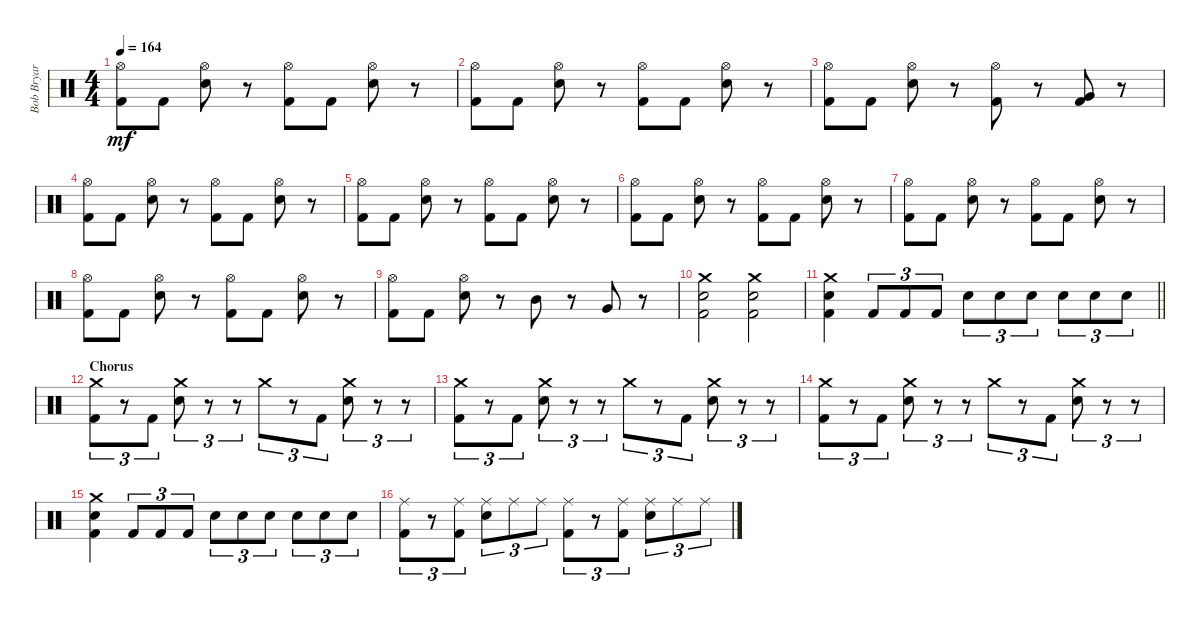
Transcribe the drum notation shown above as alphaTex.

\track ("Bob Bryar" "Bob Bryar") {instrument percussion}
\staff {score}
\articulation defaults
\ts (4 4)
\tempo 164
\clef neutral
\ks c
("Hi-Hat (open)" "Kick (hit) 2").8{dy mf} "Kick (hit) 2".8 ("Hi-Hat (open)" "Electric Snare (hit)").8 r.8 ("Hi-Hat (open)" "Kick (hit) 2").8 "Kick (hit) 2".8 ("Hi-Hat (open)" "Electric Snare (hit)").8 r.8 |
("Hi-Hat (open)" "Kick (hit) 2").8 "Kick (hit) 2".8 ("Hi-Hat (open)" "Electric Snare (hit)").8 r.8 ("Hi-Hat (open)" "Kick (hit) 2").8 "Kick (hit) 2".8 ("Hi-Hat (open)" "Electric Snare (hit)").8 r.8 |
("Hi-Hat (open)" "Kick (hit) 2").8 "Kick (hit) 2".8 ("Hi-Hat (open)" "Electric Snare (hit)").8 r.8 ("Hi-Hat (open)" "Kick (hit) 2").8 r.8 ("Kick (hit) 2" "Very Low Tom (hit)").8 r.8 |
("Hi-Hat (open)" "Kick (hit) 2").8 "Kick (hit) 2".8 ("Hi-Hat (open)" "Electric Snare (hit)").8 r.8 ("Hi-Hat (open)" "Kick (hit) 2").8 "Kick (hit) 2".8 ("Hi-Hat (open)" "Electric Snare (hit)").8 r.8 |
("Hi-Hat (open)" "Kick (hit) 2").8 "Kick (hit) 2".8 ("Hi-Hat (open)" "Electric Snare (hit)").8 r.8 ("Hi-Hat (open)" "Kick (hit) 2").8 "Kick (hit) 2".8 ("Hi-Hat (open)" "Electric Snare (hit)").8 r.8 |
("Hi-Hat (open)" "Kick (hit) 2").8 "Kick (hit) 2".8 ("Hi-Hat (open)" "Electric Snare (hit)").8 r.8 ("Hi-Hat (open)" "Kick (hit) 2").8 "Kick (hit) 2".8 ("Hi-Hat (open)" "Electric Snare (hit)").8 r.8 |
("Hi-Hat (open)" "Kick (hit) 2").8 "Kick (hit) 2".8 ("Hi-Hat (open)" "Electric Snare (hit)").8 r.8 ("Hi-Hat (open)" "Kick (hit) 2").8 "Kick (hit) 2".8 ("Hi-Hat (open)" "Electric Snare (hit)").8 r.8 |
("Hi-Hat (open)" "Kick (hit) 2").8 "Kick (hit) 2".8 ("Hi-Hat (open)" "Electric Snare (hit)").8 r.8 ("Hi-Hat (open)" "Kick (hit) 2").8 "Kick (hit) 2".8 ("Hi-Hat (open)" "Electric Snare (hit)").8 r.8 |
("Hi-Hat (open)" "Kick (hit) 2").8 "Kick (hit) 2".8 ("Hi-Hat (open)" "Electric Snare (hit)").8 r.8 "Mid Tom (hit)".8 r.8 "Very Low Tom (hit)".8 r.8 |
("Crash medium (hit)" "Electric Snare (hit)" "Kick (hit) 2").2 ("Crash medium (hit)" "Electric Snare (hit)" "Kick (hit) 2").2 |
\barLineRight lightlight
("Crash medium (hit)" "Electric Snare (hit)" "Kick (hit) 2").4 "Kick (hit) 2".8{tu (3 2)} "Kick (hit) 2".8{tu (3 2)} "Kick (hit) 2".8{tu (3 2)} "Electric Snare (hit)".8{tu (3 2)} "Electric Snare (hit)".8{tu (3 2)} "Electric Snare (hit)".8{tu (3 2)} "Electric Snare (hit)".8{tu (3 2)} "Electric Snare (hit)".8{tu (3 2)} "Electric Snare (hit)".8{tu (3 2)} |
\section ("" "Chorus")
("Crash medium (hit)" "Kick (hit) 2").8{tu (3 2)} r.8{tu (3 2)} "Kick (hit) 2".8{tu (3 2)} ("Crash medium (hit)" "Electric Snare (hit)").8{tu (3 2)} r.8{tu (3 2)} r.8{tu (3 2)} "Crash medium (hit)".8{tu (3 2)} r.8{tu (3 2)} "Kick (hit) 2".8{tu (3 2)} ("Crash medium (hit)" "Electric Snare (hit)").8{tu (3 2)} r.8{tu (3 2)} r.8{tu (3 2)} |
("Crash medium (hit)" "Kick (hit) 2").8{tu (3 2)} r.8{tu (3 2)} "Kick (hit) 2".8{tu (3 2)} ("Crash medium (hit)" "Electric Snare (hit)").8{tu (3 2)} r.8{tu (3 2)} r.8{tu (3 2)} "Crash medium (hit)".8{tu (3 2)} r.8{tu (3 2)} "Kick (hit) 2".8{tu (3 2)} ("Crash medium (hit)" "Electric Snare (hit)").8{tu (3 2)} r.8{tu (3 2)} r.8{tu (3 2)} |
("Crash medium (hit)" "Kick (hit) 2").8{tu (3 2)} r.8{tu (3 2)} "Kick (hit) 2".8{tu (3 2)} ("Crash medium (hit)" "Electric Snare (hit)").8{tu (3 2)} r.8{tu (3 2)} r.8{tu (3 2)} "Crash medium (hit)".8{tu (3 2)} r.8{tu (3 2)} "Kick (hit) 2".8{tu (3 2)} ("Crash medium (hit)" "Electric Snare (hit)").8{tu (3 2)} r.8{tu (3 2)} r.8{tu (3 2)} |
("Crash medium (hit)" "Electric Snare (hit)" "Kick (hit) 2").4 "Kick (hit) 2".8{tu (3 2)} "Kick (hit) 2".8{tu (3 2)} "Kick (hit) 2".8{tu (3 2)} "Electric Snare (hit)".8{tu (3 2)} "Electric Snare (hit)".8{tu (3 2)} "Electric Snare (hit)".8{tu (3 2)} "Electric Snare (hit)".8{tu (3 2)} "Electric Snare (hit)".8{tu (3 2)} "Electric Snare (hit)".8{tu (3 2)} |
("Ride (middle)" "Kick (hit) 2").8{tu (3 2)} r.8{tu (3 2)} ("Ride (middle)" "Kick (hit) 2").8{tu (3 2)} ("Ride (middle)" "Electric Snare (hit)").8{tu (3 2)} "Ride (middle)".8{tu (3 2)} "Ride (middle)".8{tu (3 2)} ("Ride (middle)" "Kick (hit) 2").8{tu (3 2)} r.8{tu (3 2)} ("Ride (middle)" "Kick (hit) 2").8{tu (3 2)} ("Ride (middle)" "Electric Snare (hit)").8{tu (3 2)} "Ride (middle)".8{tu (3 2)} "Ride (middle)".8{tu (3 2)}
